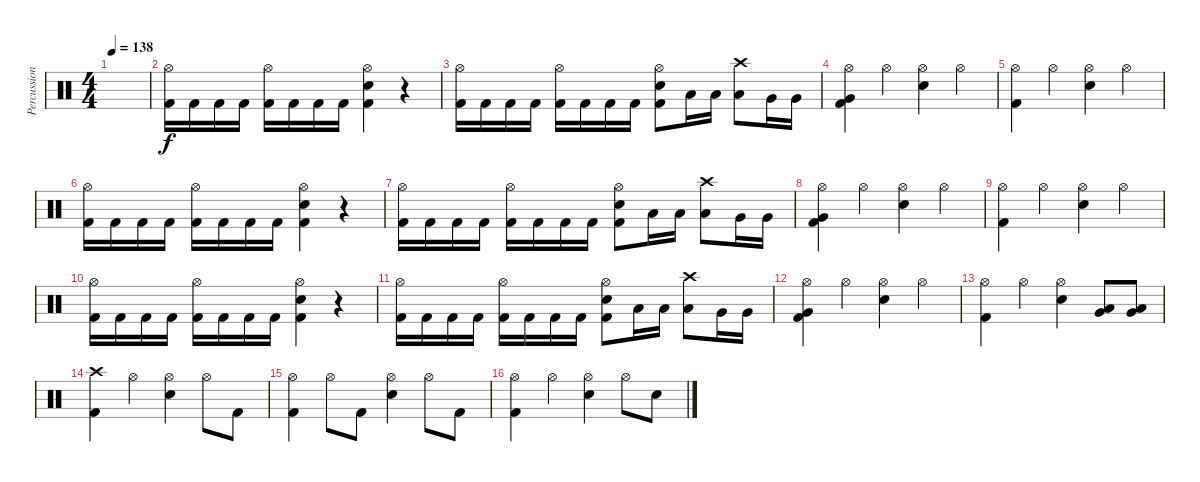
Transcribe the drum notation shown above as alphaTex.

\track ("Percussion" "Percussion") {instrument percussion}
\staff {score}
\articulation defaults
\ts (4 4)
\tempo 138
\clef neutral
\ks c
|
("Hi-Hat (open)" "Kick (hit) 2").16 "Kick (hit) 2".16 "Kick (hit) 2".16 "Kick (hit) 2".16 ("Hi-Hat (open)" "Kick (hit) 2").16 "Kick (hit) 2".16 "Kick (hit) 2".16 "Kick (hit) 2".16 ("Hi-Hat (open)" "Electric Snare (hit)" "Kick (hit) 2").4 r.4 |
("Hi-Hat (open)" "Kick (hit) 2").16 "Kick (hit) 2".16 "Kick (hit) 2".16 "Kick (hit) 2".16 ("Hi-Hat (open)" "Kick (hit) 2").16 "Kick (hit) 2".16 "Kick (hit) 2".16 "Kick (hit) 2".16 ("Hi-Hat (open)" "Electric Snare (hit)" "Kick (hit) 2").8 "Low Tom (hit)".16 "Low Tom (hit)".16 ("Crash high (hit)" "Low Tom (hit)").8 "Very Low Tom (hit)".16 "Very Low Tom (hit)".16 |
("Hi-Hat (open)" "Very Low Tom (hit)" "Kick (hit) 2").4 "Hi-Hat (open)".4 ("Hi-Hat (open)" "Electric Snare (hit)").4 "Hi-Hat (open)".4 |
("Hi-Hat (open)" "Kick (hit) 2").4 "Hi-Hat (open)".4 ("Hi-Hat (open)" "Electric Snare (hit)").4 "Hi-Hat (open)".4 |
("Hi-Hat (open)" "Kick (hit) 2").16 "Kick (hit) 2".16 "Kick (hit) 2".16 "Kick (hit) 2".16 ("Hi-Hat (open)" "Kick (hit) 2").16 "Kick (hit) 2".16 "Kick (hit) 2".16 "Kick (hit) 2".16 ("Hi-Hat (open)" "Electric Snare (hit)" "Kick (hit) 2").4 r.4 |
("Hi-Hat (open)" "Kick (hit) 2").16 "Kick (hit) 2".16 "Kick (hit) 2".16 "Kick (hit) 2".16 ("Hi-Hat (open)" "Kick (hit) 2").16 "Kick (hit) 2".16 "Kick (hit) 2".16 "Kick (hit) 2".16 ("Hi-Hat (open)" "Electric Snare (hit)" "Kick (hit) 2").8 "Low Tom (hit)".16 "Low Tom (hit)".16 ("Crash high (hit)" "Low Tom (hit)").8 "Very Low Tom (hit)".16 "Very Low Tom (hit)".16 |
("Hi-Hat (open)" "Very Low Tom (hit)" "Kick (hit) 2").4 "Hi-Hat (open)".4 ("Hi-Hat (open)" "Electric Snare (hit)").4 "Hi-Hat (open)".4 |
("Hi-Hat (open)" "Kick (hit) 2").4 "Hi-Hat (open)".4 ("Hi-Hat (open)" "Electric Snare (hit)").4 "Hi-Hat (open)".4 |
("Hi-Hat (open)" "Kick (hit) 2").16 "Kick (hit) 2".16 "Kick (hit) 2".16 "Kick (hit) 2".16 ("Hi-Hat (open)" "Kick (hit) 2").16 "Kick (hit) 2".16 "Kick (hit) 2".16 "Kick (hit) 2".16 ("Hi-Hat (open)" "Electric Snare (hit)" "Kick (hit) 2").4 r.4 |
("Hi-Hat (open)" "Kick (hit) 2").16 "Kick (hit) 2".16 "Kick (hit) 2".16 "Kick (hit) 2".16 ("Hi-Hat (open)" "Kick (hit) 2").16 "Kick (hit) 2".16 "Kick (hit) 2".16 "Kick (hit) 2".16 ("Hi-Hat (open)" "Electric Snare (hit)" "Kick (hit) 2").8 "Low Tom (hit)".16 "Low Tom (hit)".16 ("Crash high (hit)" "Low Tom (hit)").8 "Very Low Tom (hit)".16 "Very Low Tom (hit)".16 |
("Hi-Hat (open)" "Very Low Tom (hit)" "Kick (hit) 2").4 "Hi-Hat (open)".4 ("Hi-Hat (open)" "Electric Snare (hit)").4 "Hi-Hat (open)".4 |
("Hi-Hat (open)" "Kick (hit) 2").4 "Hi-Hat (open)".4 ("Hi-Hat (open)" "Electric Snare (hit)").4 ("Very Low Tom (hit)" "Low Tom (hit)").8 ("Low Floor Tom (hit)" "Very Low Tom (hit)").8 |
("Crash high (hit)" "Kick (hit) 2").4 "Hi-Hat (open)".4 ("Hi-Hat (open)" "Electric Snare (hit)").4 "Hi-Hat (open)".8 "Kick (hit) 2".8 |
("Hi-Hat (open)" "Kick (hit) 2").4 "Hi-Hat (open)".8 "Kick (hit) 2".8 ("Hi-Hat (open)" "Electric Snare (hit)").4 "Hi-Hat (open)".8 "Kick (hit) 2".8 |
("Hi-Hat (open)" "Kick (hit) 2").4 "Hi-Hat (open)".4 ("Hi-Hat (open)" "Electric Snare (hit)").4 "Hi-Hat (open)".8 "Electric Snare (hit)".8
